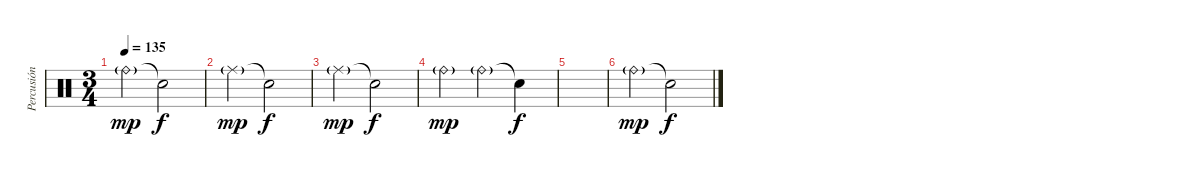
\track ("Percusión" "Percusión") {instrument percussion}
\staff {score}
\articulation defaults
\ts (3 4)
\tempo 135
\clef neutral
\ks c "Ride (bell)"{g}.4{dy mp} "Snare (hit)"{t}.2{dy f}
|
"Ride (middle)"{g}.4{dy mp} "Snare (hit)"{t}.2{dy f} |
"Ride (middle)"{g}.4{dy mp} "Snare (hit)"{t}.2{dy f} |
"Ride (bell)"{g}.4{dy mp} "Ride (bell)"{g}.4 "Snare (hit)"{t}.4{dy f} |
|
"Ride (bell)"{g}.4{dy mp} "Snare (hit)"{t}.2{dy f}
